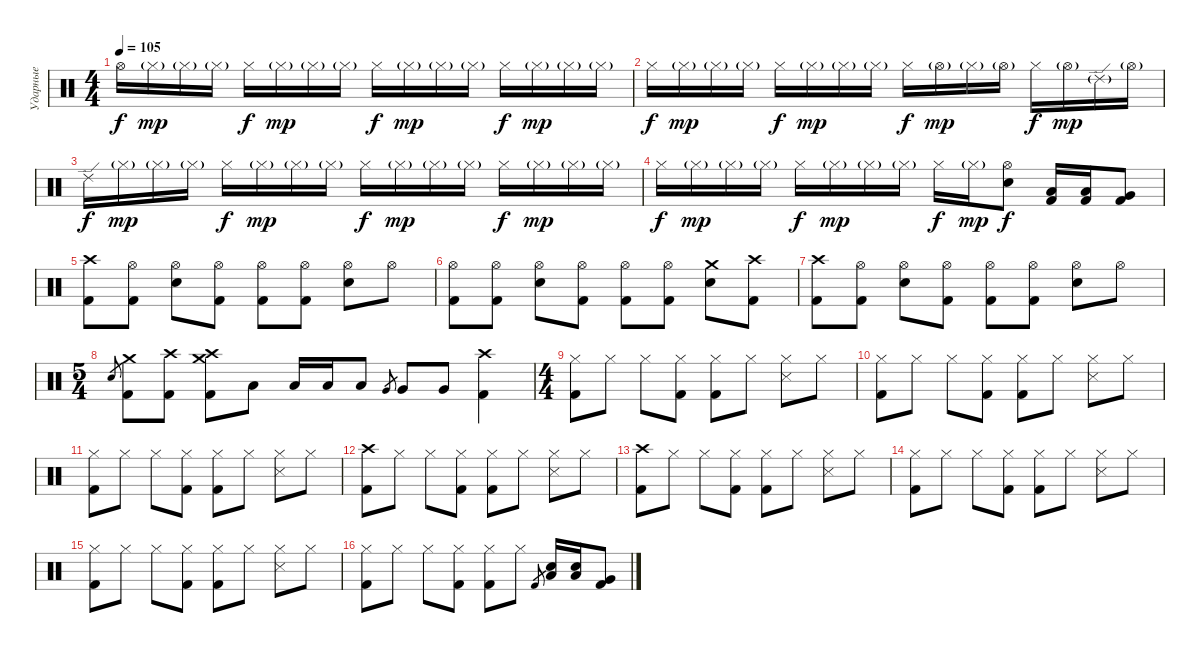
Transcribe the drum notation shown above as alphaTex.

\track ("Ударные" "Ударные") {instrument percussion}
\staff {score}
\articulation defaults
\ts (4 4)
\tempo 105
\clef neutral
\ks c "Hi-Hat (open)".16{dy f} "Hi-Hat (closed)"{g}.16{dy mp} "Hi-Hat (closed)"{g}.16 "Hi-Hat (closed)"{g}.16 "Hi-Hat (closed)".16{dy f} "Hi-Hat (closed)"{g}.16{dy mp} "Hi-Hat (closed)"{g}.16 "Hi-Hat (closed)"{g}.16 "Hi-Hat (closed)".16{dy f} "Hi-Hat (closed)"{g}.16{dy mp} "Hi-Hat (closed)"{g}.16 "Hi-Hat (closed)"{g}.16 "Hi-Hat (closed)".16{dy f} "Hi-Hat (closed)"{g}.16{dy mp} "Hi-Hat (closed)"{g}.16 "Hi-Hat (closed)"{g}.16
|
"Hi-Hat (closed)".16{dy f} "Hi-Hat (closed)"{g}.16{dy mp} "Hi-Hat (closed)"{g}.16 "Hi-Hat (closed)"{g}.16 "Hi-Hat (closed)".16{dy f} "Hi-Hat (closed)"{g}.16{dy mp} "Hi-Hat (closed)"{g}.16 "Hi-Hat (closed)"{g}.16 "Hi-Hat (closed)".16{dy f} "Hi-Hat (open)"{g}.16{dy mp} "Hi-Hat (closed)"{g}.16 "Hi-Hat (open)"{g}.16 "Hi-Hat (closed)".16{dy f} "Hi-Hat (open)"{g}.16{dy mp} "Ride (edge) 2"{g}.16 "Hi-Hat (open)"{g}.16 |
"Ride (edge) 2".16{dy f} "Hi-Hat (closed)"{g}.16{dy mp} "Hi-Hat (closed)"{g}.16 "Hi-Hat (closed)"{g}.16 "Hi-Hat (closed)".16{dy f} "Hi-Hat (closed)"{g}.16{dy mp} "Hi-Hat (closed)"{g}.16 "Hi-Hat (closed)"{g}.16 "Hi-Hat (closed)".16{dy f} "Hi-Hat (closed)"{g}.16{dy mp} "Hi-Hat (closed)"{g}.16 "Hi-Hat (closed)"{g}.16 "Hi-Hat (closed)".16{dy f} "Hi-Hat (closed)"{g}.16{dy mp} "Hi-Hat (closed)"{g}.16 "Hi-Hat (closed)"{g}.16 |
"Hi-Hat (closed)".16{dy f} "Hi-Hat (closed)"{g}.16{dy mp} "Hi-Hat (closed)"{g}.16 "Hi-Hat (closed)"{g}.16 "Hi-Hat (closed)".16{dy f} "Hi-Hat (closed)"{g}.16{dy mp} "Hi-Hat (closed)"{g}.16 "Hi-Hat (closed)"{g}.16 "Hi-Hat (closed)".16{dy f} "Hi-Hat (closed)"{g}.16{dy mp} ("Electric Snare (hit)" "Hi-Hat (open)").8{dy f} ("Low Tom (hit)" "Kick (hit) 2").16 ("Low Tom (hit)" "Kick (hit) 2").16 ("Very Low Tom (hit)" "Kick (hit) 2").8 |
("Kick (hit) 2" "Crash high (hit)").8 ("Kick (hit) 2" "Hi-Hat (open)").8 ("Electric Snare (hit)" "Hi-Hat (open)").8 ("Kick (hit) 2" "Hi-Hat (open)").8 ("Kick (hit) 2" "Hi-Hat (open)").8 ("Kick (hit) 2" "Hi-Hat (open)").8 ("Electric Snare (hit)" "Hi-Hat (open)").8 "Hi-Hat (open)".8 |
("Kick (hit) 2" "Hi-Hat (open)").8 ("Kick (hit) 2" "Hi-Hat (open)").8 ("Electric Snare (hit)" "Hi-Hat (open)").8 ("Kick (hit) 2" "Hi-Hat (open)").8 ("Kick (hit) 2" "Hi-Hat (open)").8 ("Kick (hit) 2" "Hi-Hat (open)").8 ("Electric Snare (hit)" "Crash medium (hit)").8 ("Kick (hit) 2" "Crash high (hit)").8 |
("Kick (hit) 2" "Crash high (hit)").8 ("Kick (hit) 2" "Hi-Hat (open)").8 ("Electric Snare (hit)" "Hi-Hat (open)").8 ("Kick (hit) 2" "Hi-Hat (open)").8 ("Kick (hit) 2" "Hi-Hat (open)").8 ("Kick (hit) 2" "Hi-Hat (open)").8 ("Electric Snare (hit)" "Hi-Hat (open)").8 "Hi-Hat (open)".8 |
\ts (5 4)
"Electric Snare (hit)".8{gr} ("Kick (hit) 2" "Crash medium (hit)").8 ("Kick (hit) 2" "Crash high (hit)").8 ("Kick (hit) 2" "Crash medium (hit)" "Crash high (hit)").8 "Low Tom (hit)".8 "Low Tom (hit)".16 "Low Tom (hit)".16 "Low Tom (hit)".8 "Very Low Tom (hit)".8{gr} "Very Low Tom (hit)".8 "Very Low Tom (hit)".8 ("Kick (hit) 2" "Crash high (hit)").4 |
\ts (4 4)
("Kick (hit) 2" "Hi-Hat (closed)").8 "Hi-Hat (closed)".8 "Hi-Hat (closed)".8 ("Kick (hit) 2" "Hi-Hat (closed)").8 ("Kick (hit) 2" "Hi-Hat (closed)").8 "Hi-Hat (closed)".8 ("Snare (side stick) 3" "Hi-Hat (closed)").8 "Hi-Hat (closed)".8 |
("Kick (hit) 2" "Hi-Hat (closed)").8 "Hi-Hat (closed)".8 "Hi-Hat (closed)".8 ("Kick (hit) 2" "Hi-Hat (closed)").8 ("Kick (hit) 2" "Hi-Hat (closed)").8 "Hi-Hat (closed)".8 ("Snare (side stick) 3" "Hi-Hat (closed)").8 "Hi-Hat (closed)".8 |
("Kick (hit) 2" "Hi-Hat (closed)").8 "Hi-Hat (closed)".8 "Hi-Hat (closed)".8 ("Kick (hit) 2" "Hi-Hat (closed)").8 ("Kick (hit) 2" "Hi-Hat (closed)").8 "Hi-Hat (closed)".8 ("Snare (side stick) 3" "Hi-Hat (closed)").8 "Hi-Hat (closed)".8 |
("Kick (hit) 2" "Crash high (hit)").8 "Hi-Hat (closed)".8 "Hi-Hat (closed)".8 ("Kick (hit) 2" "Hi-Hat (closed)").8 ("Kick (hit) 2" "Hi-Hat (closed)").8 "Hi-Hat (closed)".8 ("Snare (side stick) 3" "Hi-Hat (closed)").8 "Hi-Hat (closed)".8 |
("Kick (hit) 2" "Crash high (hit)").8 "Hi-Hat (closed)".8 "Hi-Hat (closed)".8 ("Kick (hit) 2" "Hi-Hat (closed)").8 ("Kick (hit) 2" "Hi-Hat (closed)").8 "Hi-Hat (closed)".8 ("Snare (side stick) 3" "Hi-Hat (closed)").8 "Hi-Hat (closed)".8 |
("Kick (hit) 2" "Hi-Hat (closed)").8 "Hi-Hat (closed)".8 "Hi-Hat (closed)".8 ("Kick (hit) 2" "Hi-Hat (closed)").8 ("Kick (hit) 2" "Hi-Hat (closed)").8 "Hi-Hat (closed)".8 ("Snare (side stick) 3" "Hi-Hat (closed)").8 "Hi-Hat (closed)".8 |
("Kick (hit) 2" "Hi-Hat (closed)").8 "Hi-Hat (closed)".8 "Hi-Hat (closed)".8 ("Kick (hit) 2" "Hi-Hat (closed)").8 ("Kick (hit) 2" "Hi-Hat (closed)").8 "Hi-Hat (closed)".8 ("Snare (side stick) 3" "Hi-Hat (closed)").8 "Hi-Hat (closed)".8 |
("Kick (hit) 2" "Hi-Hat (closed)").8 "Hi-Hat (closed)".8 "Hi-Hat (closed)".8 ("Kick (hit) 2" "Hi-Hat (closed)").8 ("Kick (hit) 2" "Hi-Hat (closed)").8 "Hi-Hat (closed)".8 "Kick (hit) 2".8{gr} ("Low Tom (hit)" "Electric Snare (hit)").16 ("Low Tom (hit)" "Electric Snare (hit)").16 ("Very Low Tom (hit)" "Kick (hit) 2").8
